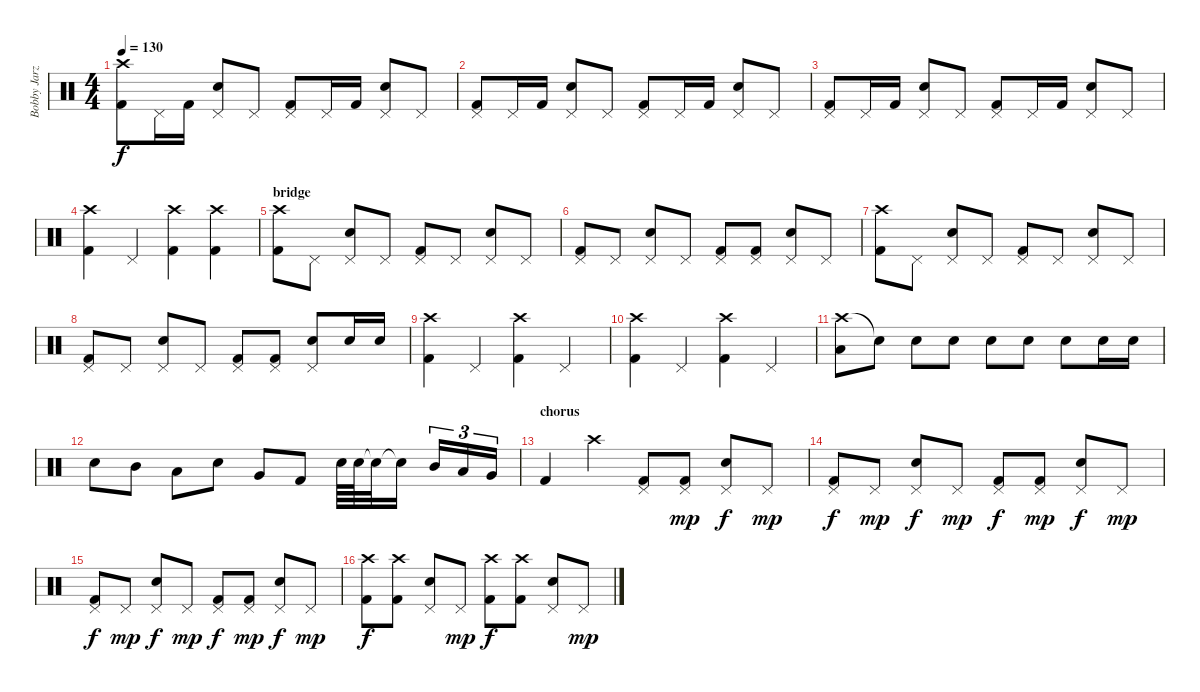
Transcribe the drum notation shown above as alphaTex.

\track ("Bobby Jarzombek" "Bobby Jarz") {instrument percussion}
\staff {score}
\articulation defaults
\ts (4 4)
\tempo 130
\clef neutral
\ks c
("Kick (hit) 2" "Crash high (hit)").8{dy f} "Pedal Hi-Hat (hit)".16 "Kick (hit) 2".16 ("Pedal Hi-Hat (hit)" "Snare (hit) 2").8 "Pedal Hi-Hat (hit)".8 ("Kick (hit) 2" "Pedal Hi-Hat (hit)").8 "Pedal Hi-Hat (hit)".16 "Kick (hit) 2".16 ("Pedal Hi-Hat (hit)" "Snare (hit) 2").8 "Pedal Hi-Hat (hit)".8 |
("Kick (hit) 2" "Pedal Hi-Hat (hit)").8 "Pedal Hi-Hat (hit)".16 "Kick (hit) 2".16 ("Pedal Hi-Hat (hit)" "Snare (hit) 2").8 "Pedal Hi-Hat (hit)".8 ("Kick (hit) 2" "Pedal Hi-Hat (hit)").8 "Pedal Hi-Hat (hit)".16 "Kick (hit) 2".16 ("Pedal Hi-Hat (hit)" "Snare (hit) 2").8 "Pedal Hi-Hat (hit)".8 |
("Kick (hit) 2" "Pedal Hi-Hat (hit)").8 "Pedal Hi-Hat (hit)".16 "Kick (hit) 2".16 ("Pedal Hi-Hat (hit)" "Snare (hit) 2").8 "Pedal Hi-Hat (hit)".8 ("Kick (hit) 2" "Pedal Hi-Hat (hit)").8 "Pedal Hi-Hat (hit)".16 "Kick (hit) 2".16 ("Pedal Hi-Hat (hit)" "Snare (hit) 2").8 "Pedal Hi-Hat (hit)".8 |
("Kick (hit) 2" "Crash high (hit)").4 "Pedal Hi-Hat (hit)".4 ("Kick (hit) 2" "Crash high (hit)").4 ("Kick (hit) 2" "Crash high (hit)").4 |
\section ("" "bridge")
("Kick (hit) 2" "Crash high (hit)").8 "Pedal Hi-Hat (hit)".8 ("Pedal Hi-Hat (hit)" "Snare (hit) 2").8 "Pedal Hi-Hat (hit)".8 ("Kick (hit) 2" "Pedal Hi-Hat (hit)").8 "Pedal Hi-Hat (hit)".8 ("Pedal Hi-Hat (hit)" "Snare (hit) 2").8 "Pedal Hi-Hat (hit)".8 |
("Kick (hit) 2" "Pedal Hi-Hat (hit)").8 "Pedal Hi-Hat (hit)".8 ("Pedal Hi-Hat (hit)" "Snare (hit) 2").8 "Pedal Hi-Hat (hit)".8 ("Kick (hit) 2" "Pedal Hi-Hat (hit)").8 ("Kick (hit) 2" "Pedal Hi-Hat (hit)").8 ("Pedal Hi-Hat (hit)" "Snare (hit) 2").8 "Pedal Hi-Hat (hit)".8 |
("Kick (hit) 2" "Crash high (hit)").8 "Pedal Hi-Hat (hit)".8 ("Pedal Hi-Hat (hit)" "Snare (hit) 2").8 "Pedal Hi-Hat (hit)".8 ("Kick (hit) 2" "Pedal Hi-Hat (hit)").8 "Pedal Hi-Hat (hit)".8 ("Pedal Hi-Hat (hit)" "Snare (hit) 2").8 "Pedal Hi-Hat (hit)".8 |
("Kick (hit) 2" "Pedal Hi-Hat (hit)").8 "Pedal Hi-Hat (hit)".8 ("Pedal Hi-Hat (hit)" "Snare (hit) 2").8 "Pedal Hi-Hat (hit)".8 ("Kick (hit) 2" "Pedal Hi-Hat (hit)").8 ("Kick (hit) 2" "Pedal Hi-Hat (hit)").8 ("Pedal Hi-Hat (hit)" "Snare (hit) 2").8 "Snare (hit) 2".16 "Snare (hit) 2".16 |
("Kick (hit) 2" "Crash high (hit)").4 "Pedal Hi-Hat (hit)".4 ("Kick (hit) 2" "Crash high (hit)").4 "Pedal Hi-Hat (hit)".4 |
("Kick (hit) 2" "Crash high (hit)").4 "Pedal Hi-Hat (hit)".4 ("Kick (hit) 2" "Crash high (hit)").4 "Pedal Hi-Hat (hit)".4 |
("Crash high (hit)" "Low Tom (hit)").8 "Snare (hit)"{t}.8 "Snare (hit) 2".8 "Snare (hit) 2".8 "Snare (hit) 2".8 "Snare (hit) 2".8 "Snare (hit) 2".8 "Snare (hit) 2".16 "Snare (hit) 2".16 |
"Snare (hit) 2".8 "Mid Tom (hit)".8 "Low Tom (hit)".8 "Snare (hit) 2".8 "Very Low Tom (hit)".8 "Kick (hit) 2".8 "Snare (hit) 2".64 "Snare (hit) 2".64 "Snare (hit)"{t}.32 "Snare (hit)"{t}.16 "Mid Tom (hit)".16{tu (3 2)} "Low Tom (hit)".16{tu (3 2)} "Very Low Tom (hit)".16{tu (3 2)} |
\section ("" "chorus")
"Kick (hit) 2".4 "Crash high (hit)".4 ("Kick (hit) 2" "Pedal Hi-Hat (hit)").8 ("Kick (hit) 2" "Pedal Hi-Hat (hit)").8{dy mp} ("Pedal Hi-Hat (hit)" "Snare (hit) 2").8{dy f} "Pedal Hi-Hat (hit)".8{dy mp} |
("Kick (hit) 2" "Pedal Hi-Hat (hit)").8{dy f} "Pedal Hi-Hat (hit)".8{dy mp} ("Pedal Hi-Hat (hit)" "Snare (hit) 2").8{dy f} "Pedal Hi-Hat (hit)".8{dy mp} ("Kick (hit) 2" "Pedal Hi-Hat (hit)").8{dy f} ("Kick (hit) 2" "Pedal Hi-Hat (hit)").8{dy mp} ("Pedal Hi-Hat (hit)" "Snare (hit) 2").8{dy f} "Pedal Hi-Hat (hit)".8{dy mp} |
("Kick (hit) 2" "Pedal Hi-Hat (hit)").8{dy f} "Pedal Hi-Hat (hit)".8{dy mp} ("Pedal Hi-Hat (hit)" "Snare (hit) 2").8{dy f} "Pedal Hi-Hat (hit)".8{dy mp} ("Kick (hit) 2" "Pedal Hi-Hat (hit)").8{dy f} ("Kick (hit) 2" "Pedal Hi-Hat (hit)").8{dy mp} ("Pedal Hi-Hat (hit)" "Snare (hit) 2").8{dy f} "Pedal Hi-Hat (hit)".8{dy mp} |
("Kick (hit) 2" "Crash high (hit)").8{dy f} ("Kick (hit) 2" "Crash high (hit)").8 ("Pedal Hi-Hat (hit)" "Snare (hit) 2").8 "Pedal Hi-Hat (hit)".8{dy mp} ("Kick (hit) 2" "Crash high (hit)").8{dy f} ("Kick (hit) 2" "Crash high (hit)").8 ("Pedal Hi-Hat (hit)" "Snare (hit) 2").8 "Pedal Hi-Hat (hit)".8{dy mp}
